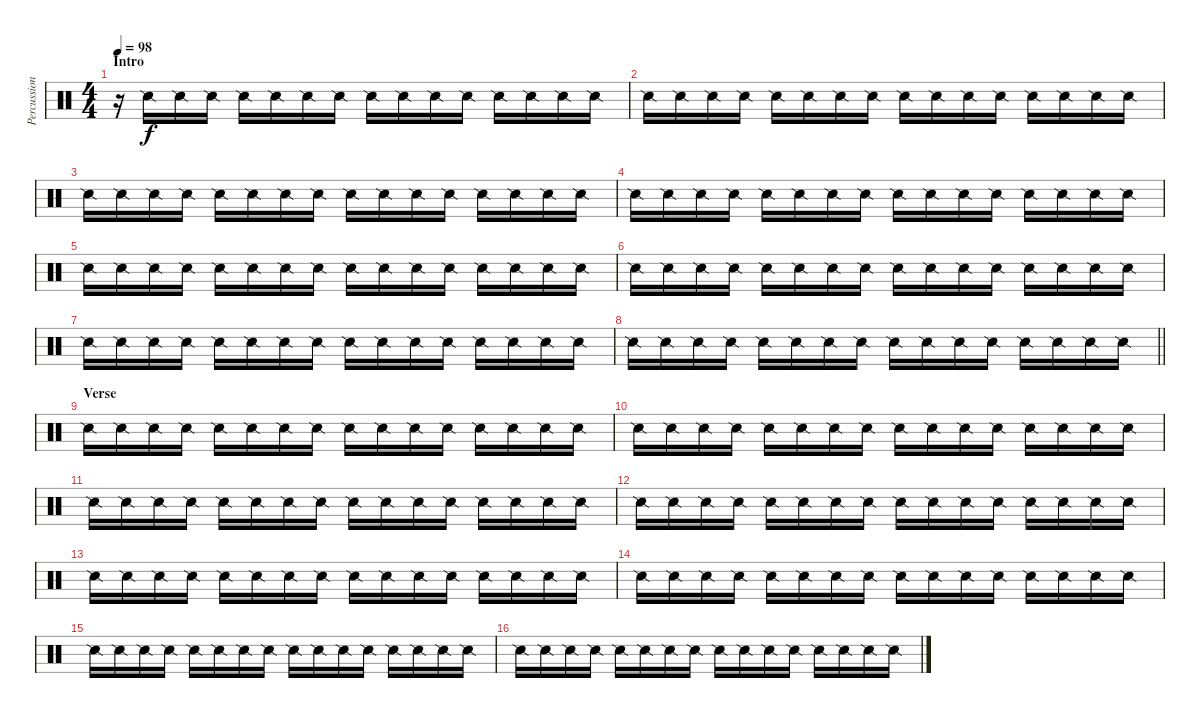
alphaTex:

\track ("Percussion" "Percussion") {instrument percussion}
\staff {score}
\articulation defaults
\ts (4 4)
\section ("" "Intro")
\tempo 98
\clef neutral
\ks c
r.16{dy f} "Snare (side stick) 2".16 "Snare (side stick) 2".16 "Snare (side stick) 2".16 "Snare (side stick) 2".16 "Snare (side stick) 2".16 "Snare (side stick) 2".16 "Snare (side stick) 2".16 "Snare (side stick) 2".16 "Snare (side stick) 2".16 "Snare (side stick) 2".16 "Snare (side stick) 2".16 "Snare (side stick) 2".16 "Snare (side stick) 2".16 "Snare (side stick) 2".16 "Snare (side stick) 2".16 |
"Snare (side stick) 2".16 "Snare (side stick) 2".16 "Snare (side stick) 2".16 "Snare (side stick) 2".16 "Snare (side stick) 2".16 "Snare (side stick) 2".16 "Snare (side stick) 2".16 "Snare (side stick) 2".16 "Snare (side stick) 2".16 "Snare (side stick) 2".16 "Snare (side stick) 2".16 "Snare (side stick) 2".16 "Snare (side stick) 2".16 "Snare (side stick) 2".16 "Snare (side stick) 2".16 "Snare (side stick) 2".16 |
"Snare (side stick) 2".16 "Snare (side stick) 2".16 "Snare (side stick) 2".16 "Snare (side stick) 2".16 "Snare (side stick) 2".16 "Snare (side stick) 2".16 "Snare (side stick) 2".16 "Snare (side stick) 2".16 "Snare (side stick) 2".16 "Snare (side stick) 2".16 "Snare (side stick) 2".16 "Snare (side stick) 2".16 "Snare (side stick) 2".16 "Snare (side stick) 2".16 "Snare (side stick) 2".16 "Snare (side stick) 2".16 |
"Snare (side stick) 2".16 "Snare (side stick) 2".16 "Snare (side stick) 2".16 "Snare (side stick) 2".16 "Snare (side stick) 2".16 "Snare (side stick) 2".16 "Snare (side stick) 2".16 "Snare (side stick) 2".16 "Snare (side stick) 2".16 "Snare (side stick) 2".16 "Snare (side stick) 2".16 "Snare (side stick) 2".16 "Snare (side stick) 2".16 "Snare (side stick) 2".16 "Snare (side stick) 2".16 "Snare (side stick) 2".16 |
"Snare (side stick) 2".16 "Snare (side stick) 2".16 "Snare (side stick) 2".16 "Snare (side stick) 2".16 "Snare (side stick) 2".16 "Snare (side stick) 2".16 "Snare (side stick) 2".16 "Snare (side stick) 2".16 "Snare (side stick) 2".16 "Snare (side stick) 2".16 "Snare (side stick) 2".16 "Snare (side stick) 2".16 "Snare (side stick) 2".16 "Snare (side stick) 2".16 "Snare (side stick) 2".16 "Snare (side stick) 2".16 |
"Snare (side stick) 2".16 "Snare (side stick) 2".16 "Snare (side stick) 2".16 "Snare (side stick) 2".16 "Snare (side stick) 2".16 "Snare (side stick) 2".16 "Snare (side stick) 2".16 "Snare (side stick) 2".16 "Snare (side stick) 2".16 "Snare (side stick) 2".16 "Snare (side stick) 2".16 "Snare (side stick) 2".16 "Snare (side stick) 2".16 "Snare (side stick) 2".16 "Snare (side stick) 2".16 "Snare (side stick) 2".16 |
"Snare (side stick) 2".16 "Snare (side stick) 2".16 "Snare (side stick) 2".16 "Snare (side stick) 2".16 "Snare (side stick) 2".16 "Snare (side stick) 2".16 "Snare (side stick) 2".16 "Snare (side stick) 2".16 "Snare (side stick) 2".16 "Snare (side stick) 2".16 "Snare (side stick) 2".16 "Snare (side stick) 2".16 "Snare (side stick) 2".16 "Snare (side stick) 2".16 "Snare (side stick) 2".16 "Snare (side stick) 2".16 |
\barLineRight lightlight "Snare (side stick) 2".16 "Snare (side stick) 2".16 "Snare (side stick) 2".16 "Snare (side stick) 2".16 "Snare (side stick) 2".16 "Snare (side stick) 2".16 "Snare (side stick) 2".16 "Snare (side stick) 2".16 "Snare (side stick) 2".16 "Snare (side stick) 2".16 "Snare (side stick) 2".16 "Snare (side stick) 2".16 "Snare (side stick) 2".16 "Snare (side stick) 2".16 "Snare (side stick) 2".16 "Snare (side stick) 2".16
|
\section ("" "Verse")
"Snare (side stick) 2".16 "Snare (side stick) 2".16 "Snare (side stick) 2".16 "Snare (side stick) 2".16 "Snare (side stick) 2".16 "Snare (side stick) 2".16 "Snare (side stick) 2".16 "Snare (side stick) 2".16 "Snare (side stick) 2".16 "Snare (side stick) 2".16 "Snare (side stick) 2".16 "Snare (side stick) 2".16 "Snare (side stick) 2".16 "Snare (side stick) 2".16 "Snare (side stick) 2".16 "Snare (side stick) 2".16 |
"Snare (side stick) 2".16 "Snare (side stick) 2".16 "Snare (side stick) 2".16 "Snare (side stick) 2".16 "Snare (side stick) 2".16 "Snare (side stick) 2".16 "Snare (side stick) 2".16 "Snare (side stick) 2".16 "Snare (side stick) 2".16 "Snare (side stick) 2".16 "Snare (side stick) 2".16 "Snare (side stick) 2".16 "Snare (side stick) 2".16 "Snare (side stick) 2".16 "Snare (side stick) 2".16 "Snare (side stick) 2".16 |
"Snare (side stick) 2".16 "Snare (side stick) 2".16 "Snare (side stick) 2".16 "Snare (side stick) 2".16 "Snare (side stick) 2".16 "Snare (side stick) 2".16 "Snare (side stick) 2".16 "Snare (side stick) 2".16 "Snare (side stick) 2".16 "Snare (side stick) 2".16 "Snare (side stick) 2".16 "Snare (side stick) 2".16 "Snare (side stick) 2".16 "Snare (side stick) 2".16 "Snare (side stick) 2".16 "Snare (side stick) 2".16 |
"Snare (side stick) 2".16 "Snare (side stick) 2".16 "Snare (side stick) 2".16 "Snare (side stick) 2".16 "Snare (side stick) 2".16 "Snare (side stick) 2".16 "Snare (side stick) 2".16 "Snare (side stick) 2".16 "Snare (side stick) 2".16 "Snare (side stick) 2".16 "Snare (side stick) 2".16 "Snare (side stick) 2".16 "Snare (side stick) 2".16 "Snare (side stick) 2".16 "Snare (side stick) 2".16 "Snare (side stick) 2".16 |
"Snare (side stick) 2".16 "Snare (side stick) 2".16 "Snare (side stick) 2".16 "Snare (side stick) 2".16 "Snare (side stick) 2".16 "Snare (side stick) 2".16 "Snare (side stick) 2".16 "Snare (side stick) 2".16 "Snare (side stick) 2".16 "Snare (side stick) 2".16 "Snare (side stick) 2".16 "Snare (side stick) 2".16 "Snare (side stick) 2".16 "Snare (side stick) 2".16 "Snare (side stick) 2".16 "Snare (side stick) 2".16 |
"Snare (side stick) 2".16 "Snare (side stick) 2".16 "Snare (side stick) 2".16 "Snare (side stick) 2".16 "Snare (side stick) 2".16 "Snare (side stick) 2".16 "Snare (side stick) 2".16 "Snare (side stick) 2".16 "Snare (side stick) 2".16 "Snare (side stick) 2".16 "Snare (side stick) 2".16 "Snare (side stick) 2".16 "Snare (side stick) 2".16 "Snare (side stick) 2".16 "Snare (side stick) 2".16 "Snare (side stick) 2".16 |
"Snare (side stick) 2".16 "Snare (side stick) 2".16 "Snare (side stick) 2".16 "Snare (side stick) 2".16 "Snare (side stick) 2".16 "Snare (side stick) 2".16 "Snare (side stick) 2".16 "Snare (side stick) 2".16 "Snare (side stick) 2".16 "Snare (side stick) 2".16 "Snare (side stick) 2".16 "Snare (side stick) 2".16 "Snare (side stick) 2".16 "Snare (side stick) 2".16 "Snare (side stick) 2".16 "Snare (side stick) 2".16 |
"Snare (side stick) 2".16 "Snare (side stick) 2".16 "Snare (side stick) 2".16 "Snare (side stick) 2".16 "Snare (side stick) 2".16 "Snare (side stick) 2".16 "Snare (side stick) 2".16 "Snare (side stick) 2".16 "Snare (side stick) 2".16 "Snare (side stick) 2".16 "Snare (side stick) 2".16 "Snare (side stick) 2".16 "Snare (side stick) 2".16 "Snare (side stick) 2".16 "Snare (side stick) 2".16 "Snare (side stick) 2".16
